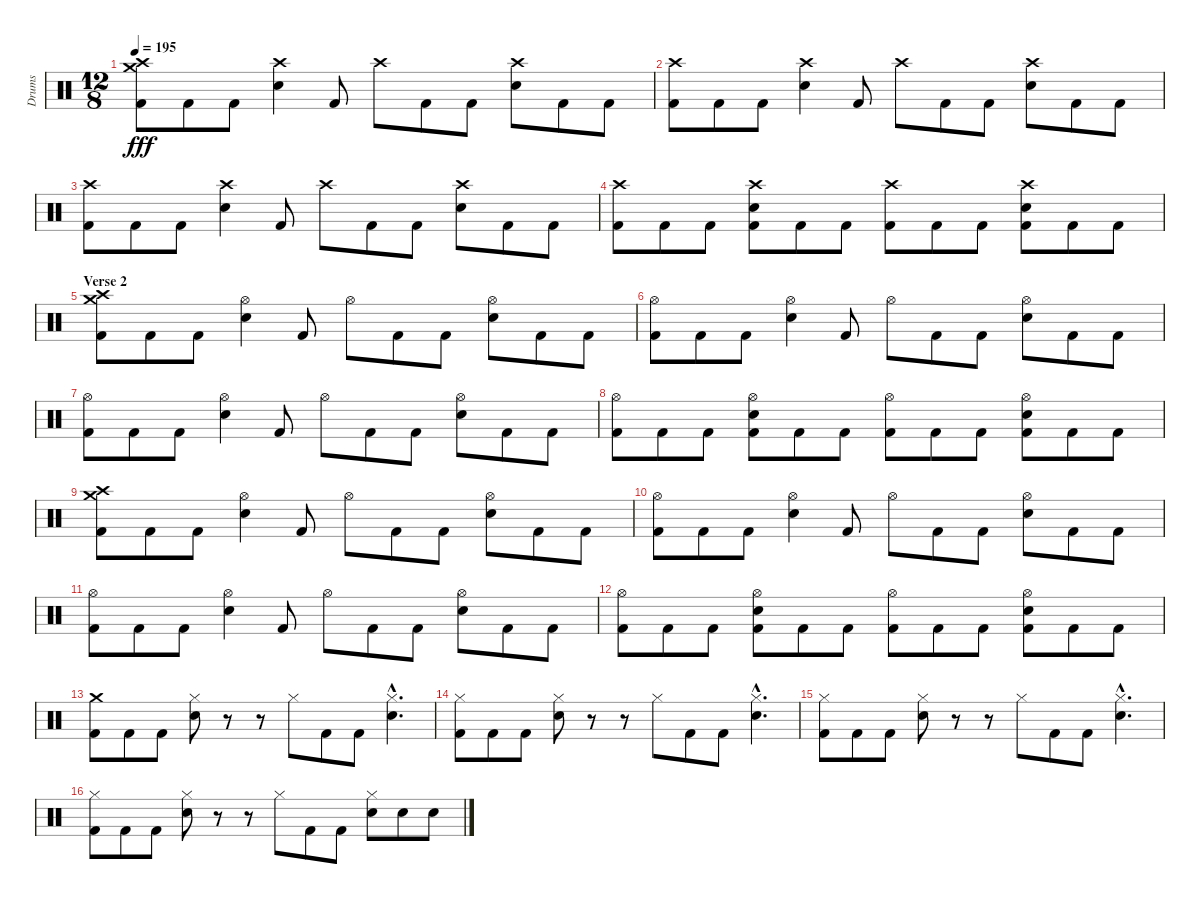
\track ("Drums" "Drums") {instrument percussion}
\staff {score}
\articulation defaults
\ts (12 8)
\tempo 195
\clef neutral
\ks c
("Crash high (hit)" "Crash medium (hit)" "Kick (hit) 2").8{dy fff} "Kick (hit) 2".8 "Kick (hit) 2".8 ("Crash high (hit)" "Electric Snare (hit)").4 "Kick (hit) 2".8 "Crash high (hit)".8 "Kick (hit) 2".8 "Kick (hit) 2".8 ("Crash high (hit)" "Electric Snare (hit)").8 "Kick (hit) 2".8 "Kick (hit) 2".8 |
("Crash high (hit)" "Kick (hit) 2").8 "Kick (hit) 2".8 "Kick (hit) 2".8 ("Crash high (hit)" "Electric Snare (hit)").4 "Kick (hit) 2".8 "Crash high (hit)".8 "Kick (hit) 2".8 "Kick (hit) 2".8 ("Crash high (hit)" "Electric Snare (hit)").8 "Kick (hit) 2".8 "Kick (hit) 2".8 |
("Crash high (hit)" "Kick (hit) 2").8 "Kick (hit) 2".8 "Kick (hit) 2".8 ("Crash high (hit)" "Electric Snare (hit)").4 "Kick (hit) 2".8 "Crash high (hit)".8 "Kick (hit) 2".8 "Kick (hit) 2".8 ("Crash high (hit)" "Electric Snare (hit)").8 "Kick (hit) 2".8 "Kick (hit) 2".8 |
("Crash high (hit)" "Kick (hit) 2").8 "Kick (hit) 2".8 "Kick (hit) 2".8 ("Crash high (hit)" "Electric Snare (hit)" "Kick (hit) 2").8 "Kick (hit) 2".8 "Kick (hit) 2".8 ("Crash high (hit)" "Kick (hit) 2").8 "Kick (hit) 2".8 "Kick (hit) 2".8 ("Crash high (hit)" "Electric Snare (hit)" "Kick (hit) 2").8 "Kick (hit) 2".8 "Kick (hit) 2".8 |
\section ("" "Verse 2")
("Crash high (hit)" "Crash medium (hit)" "Kick (hit) 2").8 "Kick (hit) 2".8 "Kick (hit) 2".8 ("Hi-Hat (open)" "Electric Snare (hit)").4 "Kick (hit) 2".8 "Hi-Hat (open)".8 "Kick (hit) 2".8 "Kick (hit) 2".8 ("Hi-Hat (open)" "Electric Snare (hit)").8 "Kick (hit) 2".8 "Kick (hit) 2".8 |
("Hi-Hat (open)" "Kick (hit) 2").8 "Kick (hit) 2".8 "Kick (hit) 2".8 ("Hi-Hat (open)" "Electric Snare (hit)").4 "Kick (hit) 2".8 "Hi-Hat (open)".8 "Kick (hit) 2".8 "Kick (hit) 2".8 ("Hi-Hat (open)" "Electric Snare (hit)").8 "Kick (hit) 2".8 "Kick (hit) 2".8 |
("Hi-Hat (open)" "Kick (hit) 2").8 "Kick (hit) 2".8 "Kick (hit) 2".8 ("Hi-Hat (open)" "Electric Snare (hit)").4 "Kick (hit) 2".8 "Hi-Hat (open)".8 "Kick (hit) 2".8 "Kick (hit) 2".8 ("Hi-Hat (open)" "Electric Snare (hit)").8 "Kick (hit) 2".8 "Kick (hit) 2".8 |
("Hi-Hat (open)" "Kick (hit) 2").8 "Kick (hit) 2".8 "Kick (hit) 2".8 ("Hi-Hat (open)" "Electric Snare (hit)" "Kick (hit) 2").8 "Kick (hit) 2".8 "Kick (hit) 2".8 ("Hi-Hat (open)" "Kick (hit) 2").8 "Kick (hit) 2".8 "Kick (hit) 2".8 ("Hi-Hat (open)" "Electric Snare (hit)" "Kick (hit) 2").8 "Kick (hit) 2".8 "Kick (hit) 2".8 |
("Crash high (hit)" "Crash medium (hit)" "Kick (hit) 2").8 "Kick (hit) 2".8 "Kick (hit) 2".8 ("Hi-Hat (open)" "Electric Snare (hit)").4 "Kick (hit) 2".8 "Hi-Hat (open)".8 "Kick (hit) 2".8 "Kick (hit) 2".8 ("Hi-Hat (open)" "Electric Snare (hit)").8 "Kick (hit) 2".8 "Kick (hit) 2".8 |
("Hi-Hat (open)" "Kick (hit) 2").8 "Kick (hit) 2".8 "Kick (hit) 2".8 ("Hi-Hat (open)" "Electric Snare (hit)").4 "Kick (hit) 2".8 "Hi-Hat (open)".8 "Kick (hit) 2".8 "Kick (hit) 2".8 ("Hi-Hat (open)" "Electric Snare (hit)").8 "Kick (hit) 2".8 "Kick (hit) 2".8 |
("Hi-Hat (open)" "Kick (hit) 2").8 "Kick (hit) 2".8 "Kick (hit) 2".8 ("Hi-Hat (open)" "Electric Snare (hit)").4 "Kick (hit) 2".8 "Hi-Hat (open)".8 "Kick (hit) 2".8 "Kick (hit) 2".8 ("Hi-Hat (open)" "Electric Snare (hit)").8 "Kick (hit) 2".8 "Kick (hit) 2".8 |
("Hi-Hat (open)" "Kick (hit) 2").8 "Kick (hit) 2".8 "Kick (hit) 2".8 ("Hi-Hat (open)" "Electric Snare (hit)" "Kick (hit) 2").8 "Kick (hit) 2".8 "Kick (hit) 2".8 ("Hi-Hat (open)" "Kick (hit) 2").8 "Kick (hit) 2".8 "Kick (hit) 2".8 ("Hi-Hat (open)" "Electric Snare (hit)" "Kick (hit) 2").8 "Kick (hit) 2".8 "Kick (hit) 2".8 |
("Crash medium (hit)" "Kick (hit) 2").8 "Kick (hit) 2".8 "Kick (hit) 2".8 ("Hi-Hat (closed)" "Electric Snare (hit)").8 r.8 r.8 "Hi-Hat (closed)".8 "Kick (hit) 2".8 "Kick (hit) 2".8 ("Hi-Hat (closed)"{hac} "Electric Snare (hit)"{hac}).4{d} |
("Hi-Hat (closed)" "Kick (hit) 2").8 "Kick (hit) 2".8 "Kick (hit) 2".8 ("Hi-Hat (closed)" "Electric Snare (hit)").8 r.8 r.8 "Hi-Hat (closed)".8 "Kick (hit) 2".8 "Kick (hit) 2".8 ("Hi-Hat (closed)"{hac} "Electric Snare (hit)"{hac}).4{d} |
("Hi-Hat (closed)" "Kick (hit) 2").8 "Kick (hit) 2".8 "Kick (hit) 2".8 ("Hi-Hat (closed)" "Electric Snare (hit)").8 r.8 r.8 "Hi-Hat (closed)".8 "Kick (hit) 2".8 "Kick (hit) 2".8 ("Hi-Hat (closed)"{hac} "Electric Snare (hit)"{hac}).4{d} |
("Hi-Hat (closed)" "Kick (hit) 2").8 "Kick (hit) 2".8 "Kick (hit) 2".8 ("Hi-Hat (closed)" "Electric Snare (hit)").8 r.8 r.8 "Hi-Hat (closed)".8 "Kick (hit) 2".8 "Kick (hit) 2".8 ("Hi-Hat (closed)" "Electric Snare (hit)").8 "Electric Snare (hit)".8 "Electric Snare (hit)".8
